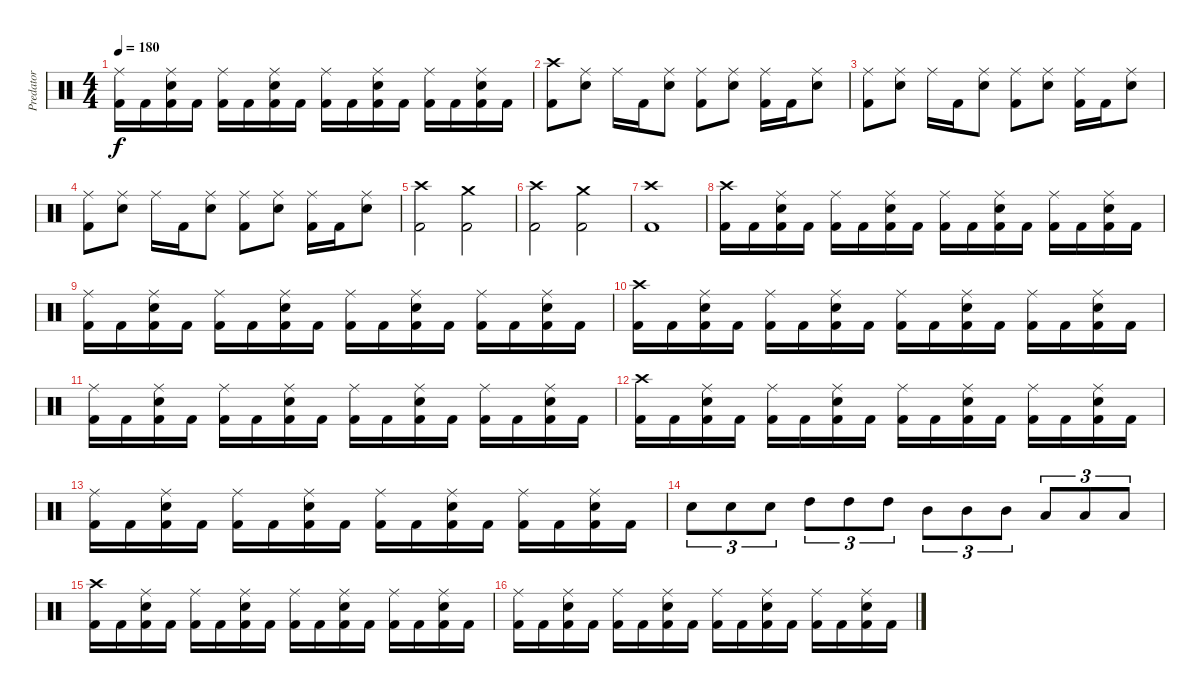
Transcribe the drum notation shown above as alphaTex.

\track ("Predator" "Predator") {instrument percussion}
\staff {score}
\articulation defaults
\ts (4 4)
\tempo 180
\clef neutral
\ks c
("Kick (hit) 2" "Ride (middle)").16{dy f} "Kick (hit) 2".16 ("Kick (hit) 2" "Electric Snare (hit)" "Ride (middle)").16 "Kick (hit) 2".16 ("Kick (hit) 2" "Ride (middle)").16 "Kick (hit) 2".16 ("Kick (hit) 2" "Electric Snare (hit)" "Ride (middle)").16 "Kick (hit) 2".16 ("Kick (hit) 2" "Ride (middle)").16 "Kick (hit) 2".16 ("Kick (hit) 2" "Electric Snare (hit)" "Ride (middle)").16 "Kick (hit) 2".16 ("Kick (hit) 2" "Ride (middle)").16 "Kick (hit) 2".16 ("Kick (hit) 2" "Electric Snare (hit)" "Ride (middle)").16 "Kick (hit) 2".16 |
("Kick (hit) 2" "Crash high (hit)").8 ("Electric Snare (hit)" "Ride (middle)").8 "Ride (middle)".16 "Kick (hit) 2".16 ("Electric Snare (hit)" "Ride (middle)").8 ("Kick (hit) 2" "Ride (middle)").8 ("Electric Snare (hit)" "Ride (middle)").8 ("Kick (hit) 2" "Ride (middle)").16 "Kick (hit) 2".16 ("Electric Snare (hit)" "Ride (middle)").8 |
("Kick (hit) 2" "Ride (middle)").8 ("Electric Snare (hit)" "Ride (middle)").8 "Ride (middle)".16 "Kick (hit) 2".16 ("Electric Snare (hit)" "Ride (middle)").8 ("Kick (hit) 2" "Ride (middle)").8 ("Electric Snare (hit)" "Ride (middle)").8 ("Kick (hit) 2" "Ride (middle)").16 "Kick (hit) 2".16 ("Electric Snare (hit)" "Ride (middle)").8 |
("Kick (hit) 2" "Ride (middle)").8 ("Electric Snare (hit)" "Ride (middle)").8 "Ride (middle)".16 "Kick (hit) 2".16 ("Electric Snare (hit)" "Ride (middle)").8 ("Kick (hit) 2" "Ride (middle)").8 ("Electric Snare (hit)" "Ride (middle)").8 ("Kick (hit) 2" "Ride (middle)").16 "Kick (hit) 2".16 ("Electric Snare (hit)" "Ride (middle)").8 |
("Kick (hit) 2" "Crash high (hit)").2 ("Kick (hit) 2" "Crash medium (hit)").2 |
("Kick (hit) 2" "Crash high (hit)").2 ("Kick (hit) 2" "Crash medium (hit)").2 |
("Kick (hit) 2" "Crash high (hit)").1 |
("Kick (hit) 2" "Crash high (hit)").16 "Kick (hit) 2".16 ("Kick (hit) 2" "Electric Snare (hit)" "Ride (middle)").16 "Kick (hit) 2".16 ("Kick (hit) 2" "Ride (middle)").16 "Kick (hit) 2".16 ("Kick (hit) 2" "Electric Snare (hit)" "Ride (middle)").16 "Kick (hit) 2".16 ("Kick (hit) 2" "Ride (middle)").16 "Kick (hit) 2".16 ("Kick (hit) 2" "Electric Snare (hit)" "Ride (middle)").16 "Kick (hit) 2".16 ("Kick (hit) 2" "Ride (middle)").16 "Kick (hit) 2".16 ("Kick (hit) 2" "Electric Snare (hit)" "Ride (middle)").16 "Kick (hit) 2".16 |
("Kick (hit) 2" "Ride (middle)").16 "Kick (hit) 2".16 ("Kick (hit) 2" "Electric Snare (hit)" "Ride (middle)").16 "Kick (hit) 2".16 ("Kick (hit) 2" "Ride (middle)").16 "Kick (hit) 2".16 ("Kick (hit) 2" "Electric Snare (hit)" "Ride (middle)").16 "Kick (hit) 2".16 ("Kick (hit) 2" "Ride (middle)").16 "Kick (hit) 2".16 ("Kick (hit) 2" "Electric Snare (hit)" "Ride (middle)").16 "Kick (hit) 2".16 ("Kick (hit) 2" "Ride (middle)").16 "Kick (hit) 2".16 ("Kick (hit) 2" "Electric Snare (hit)" "Ride (middle)").16 "Kick (hit) 2".16 |
("Kick (hit) 2" "Crash high (hit)").16 "Kick (hit) 2".16 ("Kick (hit) 2" "Electric Snare (hit)" "Ride (middle)").16 "Kick (hit) 2".16 ("Kick (hit) 2" "Ride (middle)").16 "Kick (hit) 2".16 ("Kick (hit) 2" "Electric Snare (hit)" "Ride (middle)").16 "Kick (hit) 2".16 ("Kick (hit) 2" "Ride (middle)").16 "Kick (hit) 2".16 ("Kick (hit) 2" "Electric Snare (hit)" "Ride (middle)").16 "Kick (hit) 2".16 ("Kick (hit) 2" "Ride (middle)").16 "Kick (hit) 2".16 ("Kick (hit) 2" "Electric Snare (hit)" "Ride (middle)").16 "Kick (hit) 2".16 |
("Kick (hit) 2" "Ride (middle)").16 "Kick (hit) 2".16 ("Kick (hit) 2" "Electric Snare (hit)" "Ride (middle)").16 "Kick (hit) 2".16 ("Kick (hit) 2" "Ride (middle)").16 "Kick (hit) 2".16 ("Kick (hit) 2" "Electric Snare (hit)" "Ride (middle)").16 "Kick (hit) 2".16 ("Kick (hit) 2" "Ride (middle)").16 "Kick (hit) 2".16 ("Kick (hit) 2" "Electric Snare (hit)" "Ride (middle)").16 "Kick (hit) 2".16 ("Kick (hit) 2" "Ride (middle)").16 "Kick (hit) 2".16 ("Kick (hit) 2" "Electric Snare (hit)" "Ride (middle)").16 "Kick (hit) 2".16 |
("Kick (hit) 2" "Crash high (hit)").16 "Kick (hit) 2".16 ("Kick (hit) 2" "Electric Snare (hit)" "Ride (middle)").16 "Kick (hit) 2".16 ("Kick (hit) 2" "Ride (middle)").16 "Kick (hit) 2".16 ("Kick (hit) 2" "Electric Snare (hit)" "Ride (middle)").16 "Kick (hit) 2".16 ("Kick (hit) 2" "Ride (middle)").16 "Kick (hit) 2".16 ("Kick (hit) 2" "Electric Snare (hit)" "Ride (middle)").16 "Kick (hit) 2".16 ("Kick (hit) 2" "Ride (middle)").16 "Kick (hit) 2".16 ("Kick (hit) 2" "Electric Snare (hit)" "Ride (middle)").16 "Kick (hit) 2".16 |
("Kick (hit) 2" "Ride (middle)").16 "Kick (hit) 2".16 ("Kick (hit) 2" "Electric Snare (hit)" "Ride (middle)").16 "Kick (hit) 2".16 ("Kick (hit) 2" "Ride (middle)").16 "Kick (hit) 2".16 ("Kick (hit) 2" "Electric Snare (hit)" "Ride (middle)").16 "Kick (hit) 2".16 ("Kick (hit) 2" "Ride (middle)").16 "Kick (hit) 2".16 ("Kick (hit) 2" "Electric Snare (hit)" "Ride (middle)").16 "Kick (hit) 2".16 ("Kick (hit) 2" "Ride (middle)").16 "Kick (hit) 2".16 ("Kick (hit) 2" "Electric Snare (hit)" "Ride (middle)").16 "Kick (hit) 2".16 |
"Electric Snare (hit)".8{tu (3 2)} "Electric Snare (hit)".8{tu (3 2)} "Electric Snare (hit)".8{tu (3 2)} "High Tom (hit)".8{tu (3 2)} "High Tom (hit)".8{tu (3 2)} "High Tom (hit)".8{tu (3 2)} "Mid Tom (hit)".8{tu (3 2)} "Mid Tom (hit)".8{tu (3 2)} "Mid Tom (hit)".8{tu (3 2)} "Low Tom (hit)".8{tu (3 2)} "Low Tom (hit)".8{tu (3 2)} "Low Tom (hit)".8{tu (3 2)} |
("Kick (hit) 2" "Crash high (hit)").16 "Kick (hit) 2".16 ("Kick (hit) 2" "Electric Snare (hit)" "Ride (middle)").16 "Kick (hit) 2".16 ("Kick (hit) 2" "Ride (middle)").16 "Kick (hit) 2".16 ("Kick (hit) 2" "Electric Snare (hit)" "Ride (middle)").16 "Kick (hit) 2".16 ("Kick (hit) 2" "Ride (middle)").16 "Kick (hit) 2".16 ("Kick (hit) 2" "Electric Snare (hit)" "Ride (middle)").16 "Kick (hit) 2".16 ("Kick (hit) 2" "Ride (middle)").16 "Kick (hit) 2".16 ("Kick (hit) 2" "Electric Snare (hit)" "Ride (middle)").16 "Kick (hit) 2".16 |
("Kick (hit) 2" "Ride (middle)").16 "Kick (hit) 2".16 ("Kick (hit) 2" "Electric Snare (hit)" "Ride (middle)").16 "Kick (hit) 2".16 ("Kick (hit) 2" "Ride (middle)").16 "Kick (hit) 2".16 ("Kick (hit) 2" "Electric Snare (hit)" "Ride (middle)").16 "Kick (hit) 2".16 ("Kick (hit) 2" "Ride (middle)").16 "Kick (hit) 2".16 ("Kick (hit) 2" "Electric Snare (hit)" "Ride (middle)").16 "Kick (hit) 2".16 ("Kick (hit) 2" "Ride (middle)").16 "Kick (hit) 2".16 ("Kick (hit) 2" "Electric Snare (hit)" "Ride (middle)").16 "Kick (hit) 2".16
